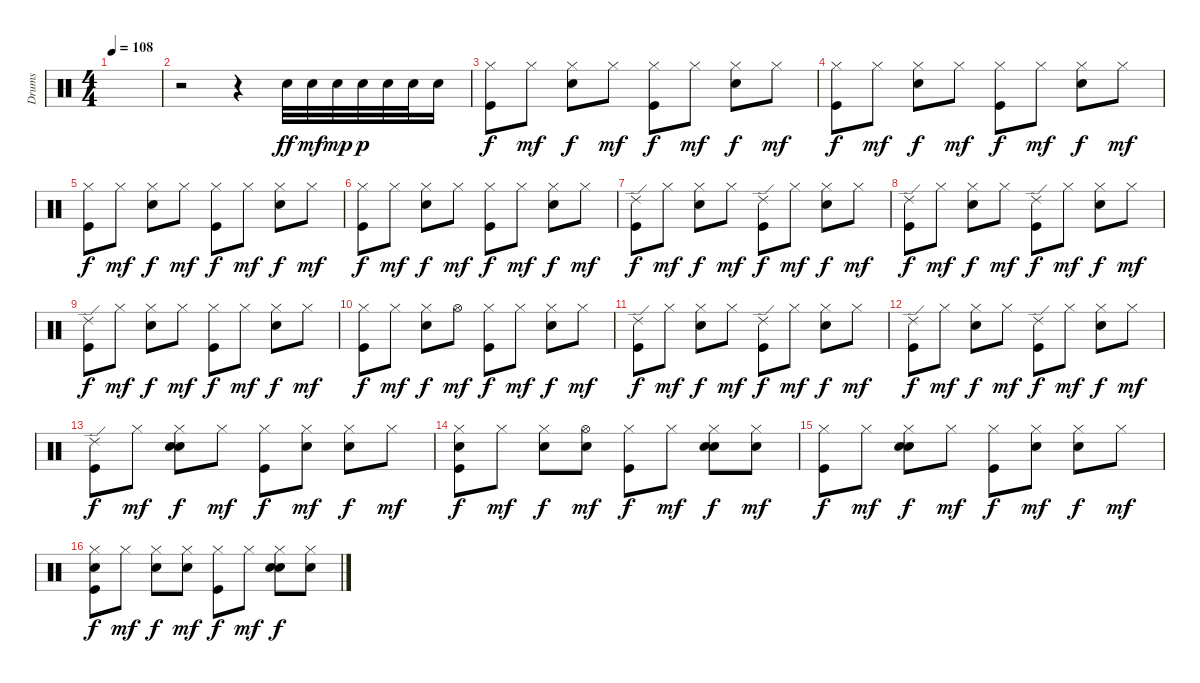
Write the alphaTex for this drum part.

\track ("Drums" "Drums") {instrument percussion}
\staff {score}
\articulation defaults
\ts (4 4)
\tempo 108
\clef neutral
\ks c
|
r.2 r.4 "Electric Snare (hit)".32{dy ff} "Electric Snare (hit)".32{dy mf} "Electric Snare (hit)".32{dy mp} "Electric Snare (hit)".32{dy p} "Electric Snare (hit)".32 "Electric Snare (hit)".32 "Electric Snare (hit)".16 |
("Hi-Hat (closed)" "Kick (hit)").8{dy f} "Hi-Hat (closed)".8{dy mf} ("Hi-Hat (closed)" "Electric Snare (hit)").8{dy f} "Hi-Hat (closed)".8{dy mf} ("Hi-Hat (closed)" "Kick (hit)").8{dy f} "Hi-Hat (closed)".8{dy mf} ("Hi-Hat (closed)" "Electric Snare (hit)").8{dy f} "Hi-Hat (closed)".8{dy mf} |
("Hi-Hat (closed)" "Kick (hit)").8{dy f} "Hi-Hat (closed)".8{dy mf} ("Hi-Hat (closed)" "Electric Snare (hit)").8{dy f} "Hi-Hat (closed)".8{dy mf} ("Hi-Hat (closed)" "Kick (hit)").8{dy f} "Hi-Hat (closed)".8{dy mf} ("Hi-Hat (closed)" "Electric Snare (hit)").8{dy f} "Hi-Hat (closed)".8{dy mf} |
("Hi-Hat (closed)" "Kick (hit)").8{dy f} "Hi-Hat (closed)".8{dy mf} ("Hi-Hat (closed)" "Electric Snare (hit)").8{dy f} "Hi-Hat (closed)".8{dy mf} ("Hi-Hat (closed)" "Kick (hit)").8{dy f} "Hi-Hat (closed)".8{dy mf} ("Hi-Hat (closed)" "Electric Snare (hit)").8{dy f} "Hi-Hat (closed)".8{dy mf} |
("Hi-Hat (closed)" "Kick (hit)").8{dy f} "Hi-Hat (closed)".8{dy mf} ("Hi-Hat (closed)" "Electric Snare (hit)").8{dy f} "Hi-Hat (closed)".8{dy mf} ("Hi-Hat (closed)" "Kick (hit)").8{dy f} "Hi-Hat (closed)".8{dy mf} ("Hi-Hat (closed)" "Electric Snare (hit)").8{dy f} "Hi-Hat (closed)".8{dy mf} |
("Ride (edge) 2" "Kick (hit)").8{dy f} "Hi-Hat (closed)".8{dy mf} ("Hi-Hat (closed)" "Electric Snare (hit)").8{dy f} "Hi-Hat (closed)".8{dy mf} ("Ride (edge) 2" "Kick (hit)").8{dy f} "Hi-Hat (closed)".8{dy mf} ("Hi-Hat (closed)" "Electric Snare (hit)").8{dy f} "Hi-Hat (closed)".8{dy mf} |
("Ride (edge) 2" "Kick (hit)").8{dy f} "Hi-Hat (closed)".8{dy mf} ("Hi-Hat (closed)" "Electric Snare (hit)").8{dy f} "Hi-Hat (closed)".8{dy mf} ("Ride (edge) 2" "Kick (hit)").8{dy f} "Hi-Hat (closed)".8{dy mf} ("Hi-Hat (closed)" "Electric Snare (hit)").8{dy f} "Hi-Hat (closed)".8{dy mf} |
("Ride (edge) 2" "Kick (hit)").8{dy f} "Hi-Hat (closed)".8{dy mf} ("Hi-Hat (closed)" "Electric Snare (hit)").8{dy f} "Hi-Hat (closed)".8{dy mf} ("Hi-Hat (closed)" "Kick (hit)").8{dy f} "Hi-Hat (closed)".8{dy mf} ("Hi-Hat (closed)" "Electric Snare (hit)").8{dy f} "Hi-Hat (closed)".8{dy mf} |
("Hi-Hat (closed)" "Kick (hit)").8{dy f} "Hi-Hat (closed)".8{dy mf} ("Hi-Hat (closed)" "Electric Snare (hit)").8{dy f} "Hi-Hat (open)".8{dy mf} ("Hi-Hat (closed)" "Kick (hit)").8{dy f} "Hi-Hat (closed)".8{dy mf} ("Hi-Hat (closed)" "Electric Snare (hit)").8{dy f} "Hi-Hat (closed)".8{dy mf} |
("Ride (edge) 2" "Kick (hit)").8{dy f} "Hi-Hat (closed)".8{dy mf} ("Hi-Hat (closed)" "Electric Snare (hit)").8{dy f} "Hi-Hat (closed)".8{dy mf} ("Ride (edge) 2" "Kick (hit)").8{dy f} "Hi-Hat (closed)".8{dy mf} ("Hi-Hat (closed)" "Electric Snare (hit)").8{dy f} "Hi-Hat (closed)".8{dy mf} |
("Ride (edge) 2" "Kick (hit)").8{dy f} "Hi-Hat (closed)".8{dy mf} ("Hi-Hat (closed)" "Electric Snare (hit)").8{dy f} "Hi-Hat (closed)".8{dy mf} ("Ride (edge) 2" "Kick (hit)").8{dy f} "Hi-Hat (closed)".8{dy mf} ("Hi-Hat (closed)" "Electric Snare (hit)").8{dy f} "Hi-Hat (closed)".8{dy mf} |
("Ride (edge) 2" "Kick (hit)").8{dy f} "Hi-Hat (closed)".8{dy mf} ("Hi-Hat (closed)" "Hand Clap (hit)" "Electric Snare (hit)").8{dy f} "Hi-Hat (closed)".8{dy mf} ("Hi-Hat (closed)" "Kick (hit)").8{dy f} ("Hi-Hat (closed)" "Hand Clap (hit)").8{dy mf} ("Hi-Hat (closed)" "Electric Snare (hit)").8{dy f} "Hi-Hat (closed)".8{dy mf} |
("Hi-Hat (closed)" "Hand Clap (hit)" "Kick (hit)").8{dy f} "Hi-Hat (closed)".8{dy mf} ("Hi-Hat (closed)" "Electric Snare (hit)").8{dy f} ("Hi-Hat (open)" "Hand Clap (hit)").8{dy mf} ("Hi-Hat (closed)" "Kick (hit)").8{dy f} "Hi-Hat (closed)".8{dy mf} ("Hi-Hat (closed)" "Hand Clap (hit)" "Electric Snare (hit)").8{dy f} ("Hi-Hat (closed)" "Hand Clap (hit)").8{dy mf} |
("Hi-Hat (closed)" "Kick (hit)").8{dy f} "Hi-Hat (closed)".8{dy mf} ("Hi-Hat (closed)" "Hand Clap (hit)" "Electric Snare (hit)").8{dy f} "Hi-Hat (closed)".8{dy mf} ("Hi-Hat (closed)" "Kick (hit)").8{dy f} ("Hi-Hat (closed)" "Hand Clap (hit)").8{dy mf} ("Hi-Hat (closed)" "Electric Snare (hit)").8{dy f} "Hi-Hat (closed)".8{dy mf} |
("Hi-Hat (closed)" "Hand Clap (hit)" "Kick (hit)").8{dy f} "Hi-Hat (closed)".8{dy mf} ("Hi-Hat (closed)" "Electric Snare (hit)").8{dy f} ("Hi-Hat (closed)" "Hand Clap (hit)").8{dy mf} ("Hi-Hat (closed)" "Kick (hit)").8{dy f} "Hi-Hat (closed)".8{dy mf} ("Hi-Hat (closed)" "Hand Clap (hit)" "Electric Snare (hit)").8{dy f} ("Hi-Hat (closed)" "Hand Clap (hit)").8
